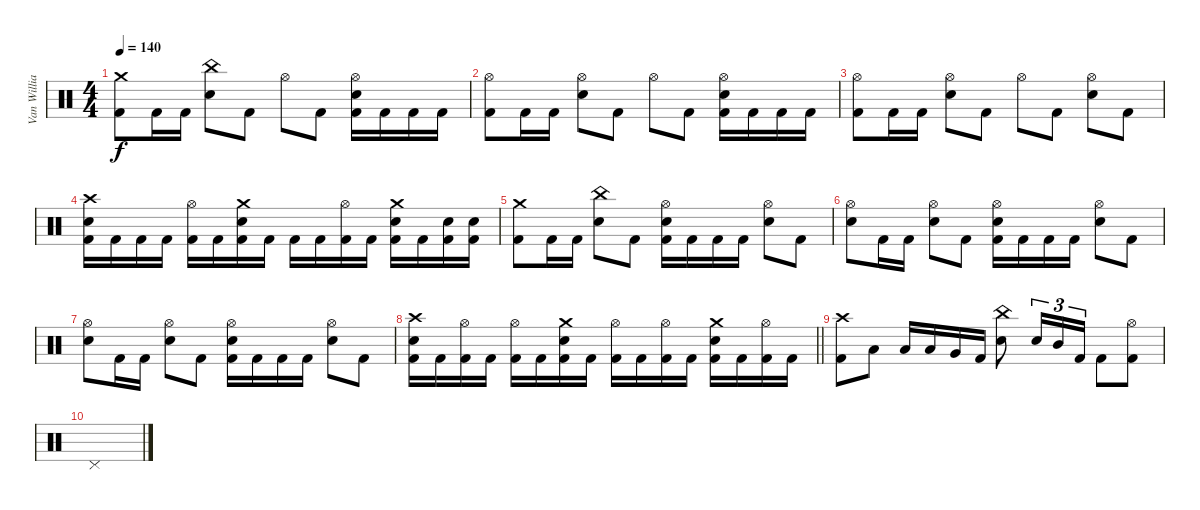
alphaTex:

\track ("Van Williams" "Van Willia") {instrument percussion}
\staff {score}
\articulation defaults
\ts (4 4)
\tempo 140
\clef neutral
\ks c
("Crash medium (hit)" "Kick (hit) 2").8{dy f} "Kick (hit) 2".16 "Kick (hit) 2".16 ("China (hit)" "Electric Snare (hit)").8 "Kick (hit) 2".8 "Hi-Hat (open)".8 "Kick (hit) 2".8 ("Hi-Hat (open)" "Electric Snare (hit)" "Kick (hit) 2").16 "Kick (hit) 2".16 "Kick (hit) 2".16 "Kick (hit) 2".16 |
("Hi-Hat (open)" "Kick (hit) 2").8 "Kick (hit) 2".16 "Kick (hit) 2".16 ("Hi-Hat (open)" "Electric Snare (hit)").8 "Kick (hit) 2".8 "Hi-Hat (open)".8 "Kick (hit) 2".8 ("Hi-Hat (open)" "Electric Snare (hit)" "Kick (hit) 2").16 "Kick (hit) 2".16 "Kick (hit) 2".16 "Kick (hit) 2".16 |
("Hi-Hat (open)" "Kick (hit) 2").8 "Kick (hit) 2".16 "Kick (hit) 2".16 ("Hi-Hat (open)" "Electric Snare (hit)").8 "Kick (hit) 2".8 "Hi-Hat (open)".8 "Kick (hit) 2".8 ("Hi-Hat (open)" "Electric Snare (hit)").8 "Kick (hit) 2".8 |
("Crash high (hit)" "Electric Snare (hit)" "Kick (hit) 2").16 "Kick (hit) 2".16 "Kick (hit) 2".16 "Kick (hit) 2".16 ("Hi-Hat (open)" "Kick (hit) 2").16 "Kick (hit) 2".16 ("Crash medium (hit)" "Electric Snare (hit)" "Kick (hit) 2").16 "Kick (hit) 2".16 "Kick (hit) 2".16 "Kick (hit) 2".16 ("Hi-Hat (open)" "Kick (hit) 2").16 "Kick (hit) 2".16 ("Crash medium (hit)" "Electric Snare (hit)" "Kick (hit) 2").16 "Kick (hit) 2".16 ("Electric Snare (hit)" "Kick (hit) 2").16 ("Electric Snare (hit)" "Kick (hit) 2").16 |
("Crash medium (hit)" "Kick (hit) 2").8 "Kick (hit) 2".16 "Kick (hit) 2".16 ("China (hit)" "Electric Snare (hit)").8 "Kick (hit) 2".8 ("Hi-Hat (open)" "Electric Snare (hit)" "Kick (hit) 2").16 "Kick (hit) 2".16 "Kick (hit) 2".16 "Kick (hit) 2".16 ("Hi-Hat (open)" "Electric Snare (hit)").8 "Kick (hit) 2".8 |
("Hi-Hat (open)" "Electric Snare (hit)").8 "Kick (hit) 2".16 "Kick (hit) 2".16 ("Hi-Hat (open)" "Electric Snare (hit)").8 "Kick (hit) 2".8 ("Hi-Hat (open)" "Electric Snare (hit)" "Kick (hit) 2").16 "Kick (hit) 2".16 "Kick (hit) 2".16 "Kick (hit) 2".16 ("Hi-Hat (open)" "Electric Snare (hit)").8 "Kick (hit) 2".8 |
("Hi-Hat (open)" "Electric Snare (hit)").8 "Kick (hit) 2".16 "Kick (hit) 2".16 ("Hi-Hat (open)" "Electric Snare (hit)").8 "Kick (hit) 2".8 ("Hi-Hat (open)" "Electric Snare (hit)" "Kick (hit) 2").16 "Kick (hit) 2".16 "Kick (hit) 2".16 "Kick (hit) 2".16 ("Hi-Hat (open)" "Electric Snare (hit)").8 "Kick (hit) 2".8 |
\barLineRight lightlight
("Crash high (hit)" "Electric Snare (hit)" "Kick (hit) 2").16 "Kick (hit) 2".16 ("Hi-Hat (open)" "Kick (hit) 2").16 "Kick (hit) 2".16 ("Hi-Hat (open)" "Kick (hit) 2").16 "Kick (hit) 2".16 ("Crash medium (hit)" "Electric Snare (hit)" "Kick (hit) 2").16 "Kick (hit) 2".16 ("Hi-Hat (open)" "Kick (hit) 2").16 "Kick (hit) 2".16 ("Hi-Hat (open)" "Kick (hit) 2").16 "Kick (hit) 2".16 ("Crash medium (hit)" "Electric Snare (hit)" "Kick (hit) 2").16 "Kick (hit) 2".16 ("Hi-Hat (open)" "Kick (hit) 2").16 "Kick (hit) 2".16 |
("Crash high (hit)" "Kick (hit) 2").8 "Low Tom (hit)".8 "Low Tom (hit)".16 "Low Tom (hit)".16 "Very Low Tom (hit)".16 "Kick (hit) 2".16 ("China (hit)" "Electric Snare (hit)").8 "Electric Snare (hit)".16{tu (3 2)} "Mid Tom (hit)".16{tu (3 2)} "Kick (hit) 2".16{tu (3 2)} "Kick (hit) 2".8 ("Hi-Hat (open)" "Kick (hit) 2").8 |
"Pedal Hi-Hat (hit)".1
